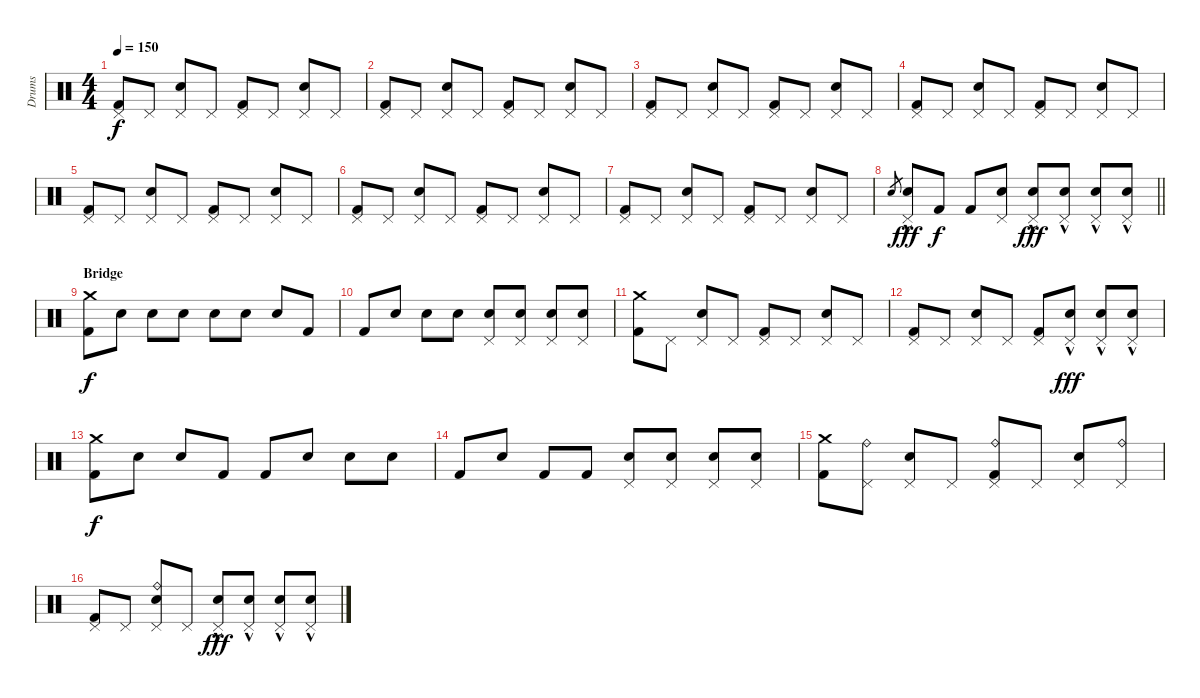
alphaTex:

\track ("Drums" "Drums") {instrument percussion}
\staff {score}
\articulation defaults
\ts (4 4)
\tempo 150
\clef neutral
\ks c
("Pedal Hi-Hat (hit)" "Kick (hit) 2").8{dy f} "Pedal Hi-Hat (hit)".8 ("Pedal Hi-Hat (hit)" "Electric Snare (hit)").8 "Pedal Hi-Hat (hit)".8 ("Pedal Hi-Hat (hit)" "Kick (hit) 2").8 "Pedal Hi-Hat (hit)".8 ("Pedal Hi-Hat (hit)" "Electric Snare (hit)").8 "Pedal Hi-Hat (hit)".8 |
("Pedal Hi-Hat (hit)" "Kick (hit) 2").8 "Pedal Hi-Hat (hit)".8 ("Pedal Hi-Hat (hit)" "Electric Snare (hit)").8 "Pedal Hi-Hat (hit)".8 ("Pedal Hi-Hat (hit)" "Kick (hit) 2").8 "Pedal Hi-Hat (hit)".8 ("Pedal Hi-Hat (hit)" "Electric Snare (hit)").8 "Pedal Hi-Hat (hit)".8 |
("Pedal Hi-Hat (hit)" "Kick (hit) 2").8 "Pedal Hi-Hat (hit)".8 ("Pedal Hi-Hat (hit)" "Electric Snare (hit)").8 "Pedal Hi-Hat (hit)".8 ("Pedal Hi-Hat (hit)" "Kick (hit) 2").8 "Pedal Hi-Hat (hit)".8 ("Pedal Hi-Hat (hit)" "Electric Snare (hit)").8 "Pedal Hi-Hat (hit)".8 |
("Pedal Hi-Hat (hit)" "Kick (hit) 2").8 "Pedal Hi-Hat (hit)".8 ("Pedal Hi-Hat (hit)" "Electric Snare (hit)").8 "Pedal Hi-Hat (hit)".8 ("Pedal Hi-Hat (hit)" "Kick (hit) 2").8 "Pedal Hi-Hat (hit)".8 ("Pedal Hi-Hat (hit)" "Electric Snare (hit)").8 "Pedal Hi-Hat (hit)".8 |
("Pedal Hi-Hat (hit)" "Kick (hit) 2").8 "Pedal Hi-Hat (hit)".8 ("Pedal Hi-Hat (hit)" "Electric Snare (hit)").8 "Pedal Hi-Hat (hit)".8 ("Pedal Hi-Hat (hit)" "Kick (hit) 2").8 "Pedal Hi-Hat (hit)".8 ("Pedal Hi-Hat (hit)" "Electric Snare (hit)").8 "Pedal Hi-Hat (hit)".8 |
("Pedal Hi-Hat (hit)" "Kick (hit) 2").8 "Pedal Hi-Hat (hit)".8 ("Pedal Hi-Hat (hit)" "Electric Snare (hit)").8 "Pedal Hi-Hat (hit)".8 ("Pedal Hi-Hat (hit)" "Kick (hit) 2").8 "Pedal Hi-Hat (hit)".8 ("Pedal Hi-Hat (hit)" "Electric Snare (hit)").8 "Pedal Hi-Hat (hit)".8 |
("Pedal Hi-Hat (hit)" "Kick (hit) 2").8 "Pedal Hi-Hat (hit)".8 ("Pedal Hi-Hat (hit)" "Electric Snare (hit)").8 "Pedal Hi-Hat (hit)".8 ("Pedal Hi-Hat (hit)" "Kick (hit) 2").8 "Pedal Hi-Hat (hit)".8 ("Pedal Hi-Hat (hit)" "Electric Snare (hit)").8 "Pedal Hi-Hat (hit)".8 |
\barLineRight lightlight "Electric Snare (hit)".8{gr}
("Pedal Hi-Hat (hit)" "Electric Snare (hit)"{hac}).8{dy fff} "Kick (hit) 2".8{dy f} "Kick (hit) 2".8 ("Pedal Hi-Hat (hit)" "Electric Snare (hit)").8 ("Pedal Hi-Hat (hit)" "Electric Snare (hit)"{hac}).8{dy fff} ("Pedal Hi-Hat (hit)" "Electric Snare (hit)"{hac}).8 ("Pedal Hi-Hat (hit)" "Electric Snare (hit)"{hac}).8 ("Pedal Hi-Hat (hit)" "Electric Snare (hit)"{hac}).8 |
\section ("" "Bridge")
("Crash medium (hit)" "Kick (hit) 2").8{dy f} "Snare (hit)".8 "Electric Snare (hit)".8 "Snare (hit)".8 "Snare (hit)".8 "Snare (hit)".8 "Electric Snare (hit)".8 "Kick (hit) 2".8 |
"Kick (hit) 2".8 "Snare (hit)".8 "Electric Snare (hit)".8 "Snare (hit)".8 ("Pedal Hi-Hat (hit)" "Electric Snare (hit)").8 ("Pedal Hi-Hat (hit)" "Electric Snare (hit)").8 ("Pedal Hi-Hat (hit)" "Electric Snare (hit)").8 ("Pedal Hi-Hat (hit)" "Electric Snare (hit)").8 |
("Crash medium (hit)" "Kick (hit) 2").8 "Pedal Hi-Hat (hit)".8 ("Pedal Hi-Hat (hit)" "Electric Snare (hit)").8 "Pedal Hi-Hat (hit)".8 ("Pedal Hi-Hat (hit)" "Kick (hit) 2").8 "Pedal Hi-Hat (hit)".8 ("Pedal Hi-Hat (hit)" "Electric Snare (hit)").8 "Pedal Hi-Hat (hit)".8 |
("Pedal Hi-Hat (hit)" "Kick (hit) 2").8 "Pedal Hi-Hat (hit)".8 ("Pedal Hi-Hat (hit)" "Electric Snare (hit)").8 "Pedal Hi-Hat (hit)".8 ("Pedal Hi-Hat (hit)" "Kick (hit) 2").8 ("Pedal Hi-Hat (hit)" "Electric Snare (hit)"{hac}).8{dy fff} ("Pedal Hi-Hat (hit)" "Electric Snare (hit)"{hac}).8 ("Pedal Hi-Hat (hit)" "Electric Snare (hit)"{hac}).8 |
("Crash medium (hit)" "Kick (hit) 2").8{dy f} "Snare (hit)".8 "Electric Snare (hit)".8 "Kick (hit) 2".8 "Kick (hit) 2".8 "Snare (hit)".8 "Electric Snare (hit)".8 "Snare (hit)".8 |
"Kick (hit) 2".8 "Electric Snare (hit)".8 "Kick (hit) 2".8 "Kick (hit) 2".8 ("Pedal Hi-Hat (hit)" "Electric Snare (hit)").8 ("Pedal Hi-Hat (hit)" "Electric Snare (hit)").8 ("Pedal Hi-Hat (hit)" "Electric Snare (hit)").8 ("Pedal Hi-Hat (hit)" "Electric Snare (hit)").8 |
("Crash medium (hit)" "Kick (hit) 2").8 ("Ride (bell)" "Pedal Hi-Hat (hit)").8 ("Pedal Hi-Hat (hit)" "Electric Snare (hit)").8 "Pedal Hi-Hat (hit)".8 ("Ride (bell)" "Pedal Hi-Hat (hit)" "Kick (hit) 2").8 "Pedal Hi-Hat (hit)".8 ("Pedal Hi-Hat (hit)" "Electric Snare (hit)").8 ("Ride (bell)" "Pedal Hi-Hat (hit)").8 |
("Pedal Hi-Hat (hit)" "Kick (hit) 2").8 "Pedal Hi-Hat (hit)".8 ("Ride (bell)" "Pedal Hi-Hat (hit)" "Electric Snare (hit)").8 "Pedal Hi-Hat (hit)".8 ("Pedal Hi-Hat (hit)" "Electric Snare (hit)"{hac}).8{dy fff} ("Pedal Hi-Hat (hit)" "Electric Snare (hit)"{hac}).8 ("Pedal Hi-Hat (hit)" "Electric Snare (hit)"{hac}).8 ("Pedal Hi-Hat (hit)" "Electric Snare (hit)"{hac}).8
